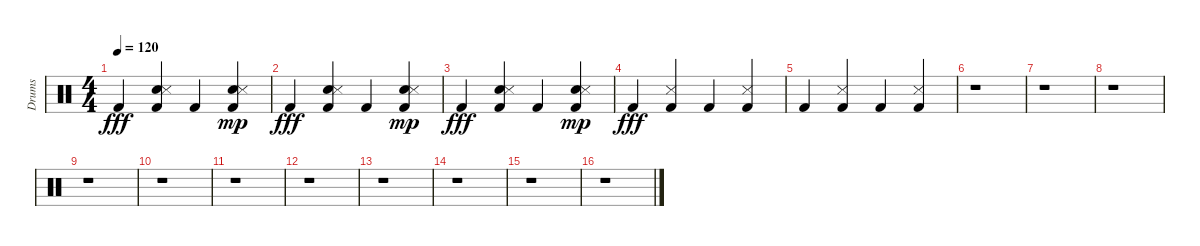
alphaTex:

\track ("Drums" "Drums") {instrument percussion}
\staff {score}
\articulation defaults
\ts (4 4)
\tempo 120
\clef neutral
\ks c "Kick (hit) 2".4{dy fff}
("Hand Clap (hit)" "Kick (hit) 2" "Snare (side stick) 3").4 "Kick (hit) 2".4 ("Kick (hit) 2" "Hand Clap (hit)" "Snare (side stick) 3").4{dy mp} |
"Kick (hit) 2".4{dy fff} ("Hand Clap (hit)" "Kick (hit) 2" "Snare (side stick) 3").4 "Kick (hit) 2".4 ("Kick (hit) 2" "Hand Clap (hit)" "Snare (side stick) 3").4{dy mp} |
"Kick (hit) 2".4{dy fff} ("Hand Clap (hit)" "Kick (hit) 2" "Snare (side stick) 3").4 "Kick (hit) 2".4 ("Kick (hit) 2" "Hand Clap (hit)" "Snare (side stick) 3").4{dy mp} |
"Kick (hit) 2".4{dy fff} ("Kick (hit) 2" "Snare (side stick) 3").4 "Kick (hit) 2".4 ("Kick (hit) 2" "Snare (side stick) 3").4 |
"Kick (hit) 2".4 ("Kick (hit) 2" "Snare (side stick) 3").4 "Kick (hit) 2".4 ("Kick (hit) 2" "Snare (side stick) 3").4 |
r.1 |
r.1 |
r.1 |
r.1 |
r.1 |
r.1 |
r.1 |
r.1 |
r.1 |
r.1 |
r.1
